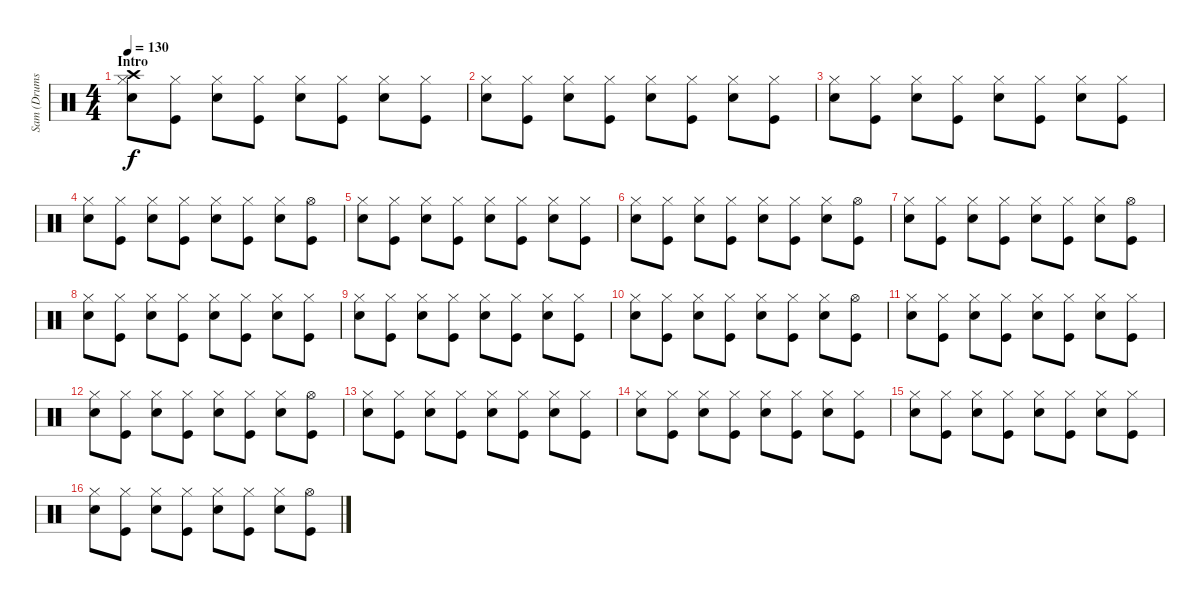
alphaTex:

\track ("Sam (Drums)" "Sam (Drums") {instrument percussion}
\staff {score}
\articulation defaults
\ts (4 4)
\section ("" "Intro")
\tempo 130
\clef neutral
\ks c
("Crash high (hit)" "Hi-Hat (closed)" "Snare (hit) 2").8{dy f} ("Hi-Hat (closed)" "Kick (hit)").8 ("Hi-Hat (closed)" "Snare (hit) 2").8 ("Hi-Hat (closed)" "Kick (hit)").8 ("Hi-Hat (closed)" "Snare (hit) 2").8 ("Hi-Hat (closed)" "Kick (hit)").8 ("Hi-Hat (closed)" "Snare (hit) 2").8 ("Hi-Hat (closed)" "Kick (hit)").8 |
("Hi-Hat (closed)" "Snare (hit) 2").8 ("Hi-Hat (closed)" "Kick (hit)").8 ("Hi-Hat (closed)" "Snare (hit) 2").8 ("Hi-Hat (closed)" "Kick (hit)").8 ("Hi-Hat (closed)" "Snare (hit) 2").8 ("Hi-Hat (closed)" "Kick (hit)").8 ("Hi-Hat (closed)" "Snare (hit) 2").8 ("Hi-Hat (closed)" "Kick (hit)").8 |
("Hi-Hat (closed)" "Snare (hit) 2").8 ("Hi-Hat (closed)" "Kick (hit)").8 ("Hi-Hat (closed)" "Snare (hit) 2").8 ("Hi-Hat (closed)" "Kick (hit)").8 ("Hi-Hat (closed)" "Snare (hit) 2").8 ("Hi-Hat (closed)" "Kick (hit)").8 ("Hi-Hat (closed)" "Snare (hit) 2").8 ("Hi-Hat (closed)" "Kick (hit)").8 |
("Hi-Hat (closed)" "Snare (hit) 2").8 ("Hi-Hat (closed)" "Kick (hit)").8 ("Hi-Hat (closed)" "Snare (hit) 2").8 ("Hi-Hat (closed)" "Kick (hit)").8 ("Hi-Hat (closed)" "Snare (hit) 2").8 ("Hi-Hat (closed)" "Kick (hit)").8 ("Hi-Hat (closed)" "Snare (hit) 2").8 ("Hi-Hat (open)" "Kick (hit)").8 |
("Hi-Hat (closed)" "Snare (hit) 2").8 ("Hi-Hat (closed)" "Kick (hit)").8 ("Hi-Hat (closed)" "Snare (hit) 2").8 ("Hi-Hat (closed)" "Kick (hit)").8 ("Hi-Hat (closed)" "Snare (hit) 2").8 ("Hi-Hat (closed)" "Kick (hit)").8 ("Hi-Hat (closed)" "Snare (hit) 2").8 ("Hi-Hat (closed)" "Kick (hit)").8 |
("Hi-Hat (closed)" "Snare (hit) 2").8 ("Hi-Hat (closed)" "Kick (hit)").8 ("Hi-Hat (closed)" "Snare (hit) 2").8 ("Hi-Hat (closed)" "Kick (hit)").8 ("Hi-Hat (closed)" "Snare (hit) 2").8 ("Hi-Hat (closed)" "Kick (hit)").8 ("Hi-Hat (closed)" "Snare (hit) 2").8 ("Hi-Hat (open)" "Kick (hit)").8 |
("Hi-Hat (closed)" "Snare (hit) 2").8 ("Hi-Hat (closed)" "Kick (hit)").8 ("Hi-Hat (closed)" "Snare (hit) 2").8 ("Hi-Hat (closed)" "Kick (hit)").8 ("Hi-Hat (closed)" "Snare (hit) 2").8 ("Hi-Hat (closed)" "Kick (hit)").8 ("Hi-Hat (closed)" "Snare (hit) 2").8 ("Hi-Hat (open)" "Kick (hit)").8 |
("Hi-Hat (closed)" "Snare (hit) 2").8 ("Hi-Hat (closed)" "Kick (hit)").8 ("Hi-Hat (closed)" "Snare (hit) 2").8 ("Hi-Hat (closed)" "Kick (hit)").8 ("Hi-Hat (closed)" "Snare (hit) 2").8 ("Hi-Hat (closed)" "Kick (hit)").8 ("Hi-Hat (closed)" "Snare (hit) 2").8 ("Hi-Hat (closed)" "Kick (hit)").8 |
("Hi-Hat (closed)" "Snare (hit) 2").8 ("Hi-Hat (closed)" "Kick (hit)").8 ("Hi-Hat (closed)" "Snare (hit) 2").8 ("Hi-Hat (closed)" "Kick (hit)").8 ("Hi-Hat (closed)" "Snare (hit) 2").8 ("Hi-Hat (closed)" "Kick (hit)").8 ("Hi-Hat (closed)" "Snare (hit) 2").8 ("Hi-Hat (closed)" "Kick (hit)").8 |
("Hi-Hat (closed)" "Snare (hit) 2").8 ("Hi-Hat (closed)" "Kick (hit)").8 ("Hi-Hat (closed)" "Snare (hit) 2").8 ("Hi-Hat (closed)" "Kick (hit)").8 ("Hi-Hat (closed)" "Snare (hit) 2").8 ("Hi-Hat (closed)" "Kick (hit)").8 ("Hi-Hat (closed)" "Snare (hit) 2").8 ("Hi-Hat (open)" "Kick (hit)").8 |
("Hi-Hat (closed)" "Snare (hit) 2").8 ("Hi-Hat (closed)" "Kick (hit)").8 ("Hi-Hat (closed)" "Snare (hit) 2").8 ("Hi-Hat (closed)" "Kick (hit)").8 ("Hi-Hat (closed)" "Snare (hit) 2").8 ("Hi-Hat (closed)" "Kick (hit)").8 ("Hi-Hat (closed)" "Snare (hit) 2").8 ("Hi-Hat (closed)" "Kick (hit)").8 |
("Hi-Hat (closed)" "Snare (hit) 2").8 ("Hi-Hat (closed)" "Kick (hit)").8 ("Hi-Hat (closed)" "Snare (hit) 2").8 ("Hi-Hat (closed)" "Kick (hit)").8 ("Hi-Hat (closed)" "Snare (hit) 2").8 ("Hi-Hat (closed)" "Kick (hit)").8 ("Hi-Hat (closed)" "Snare (hit) 2").8 ("Hi-Hat (open)" "Kick (hit)").8 |
("Hi-Hat (closed)" "Snare (hit) 2").8 ("Hi-Hat (closed)" "Kick (hit)").8 ("Hi-Hat (closed)" "Snare (hit) 2").8 ("Hi-Hat (closed)" "Kick (hit)").8 ("Hi-Hat (closed)" "Snare (hit) 2").8 ("Hi-Hat (closed)" "Kick (hit)").8 ("Hi-Hat (closed)" "Snare (hit) 2").8 ("Hi-Hat (closed)" "Kick (hit)").8 |
("Hi-Hat (closed)" "Snare (hit) 2").8 ("Hi-Hat (closed)" "Kick (hit)").8 ("Hi-Hat (closed)" "Snare (hit) 2").8 ("Hi-Hat (closed)" "Kick (hit)").8 ("Hi-Hat (closed)" "Snare (hit) 2").8 ("Hi-Hat (closed)" "Kick (hit)").8 ("Hi-Hat (closed)" "Snare (hit) 2").8 ("Hi-Hat (closed)" "Kick (hit)").8 |
("Hi-Hat (closed)" "Snare (hit) 2").8 ("Hi-Hat (closed)" "Kick (hit)").8 ("Hi-Hat (closed)" "Snare (hit) 2").8 ("Hi-Hat (closed)" "Kick (hit)").8 ("Hi-Hat (closed)" "Snare (hit) 2").8 ("Hi-Hat (closed)" "Kick (hit)").8 ("Hi-Hat (closed)" "Snare (hit) 2").8 ("Hi-Hat (closed)" "Kick (hit)").8 |
("Hi-Hat (closed)" "Snare (hit) 2").8 ("Hi-Hat (closed)" "Kick (hit)").8 ("Hi-Hat (closed)" "Snare (hit) 2").8 ("Hi-Hat (closed)" "Kick (hit)").8 ("Hi-Hat (closed)" "Snare (hit) 2").8 ("Hi-Hat (closed)" "Kick (hit)").8 ("Hi-Hat (closed)" "Snare (hit) 2").8 ("Hi-Hat (open)" "Kick (hit)").8
